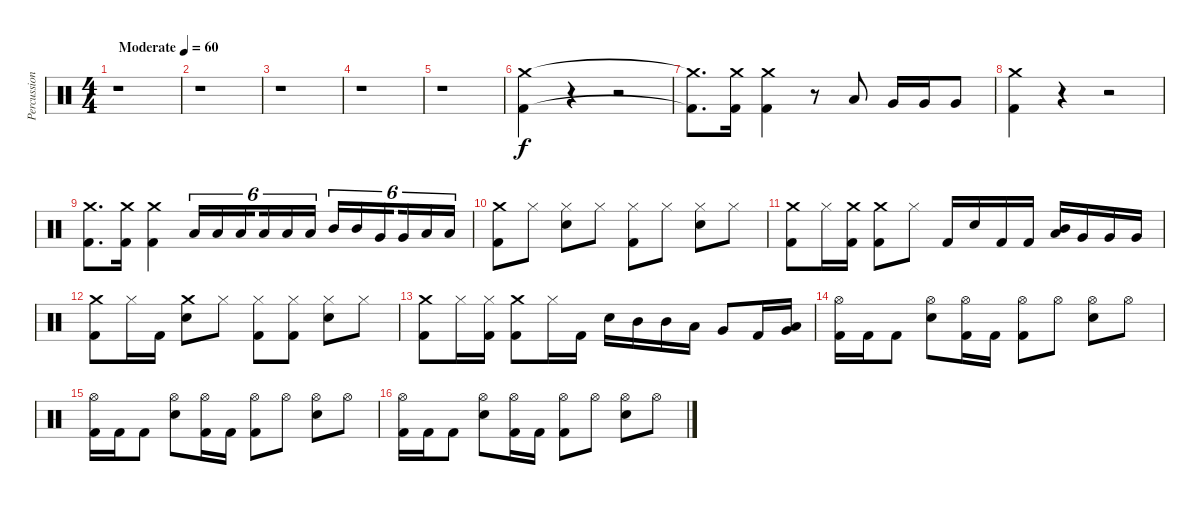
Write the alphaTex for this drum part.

\track ("Percussion" "Percussion") {instrument percussion}
\staff {score}
\articulation defaults
\ts (4 4)
\tempo (60 "Moderate")
\clef neutral
\ks c
r.1{dy f} |
r.1 |
r.1 |
r.1 |
r.1 |
("Crash medium (hit)" "Kick (hit) 2").4 r.4 r.2 |
("Crash medium (hit)"{t} "Kick (hit) 2"{t}).8{d} ("Crash medium (hit)" "Kick (hit) 2").16 ("Crash medium (hit)" "Kick (hit) 2").4 r.8 "Low Tom (hit)".8 "Very Low Tom (hit)".16 "Very Low Tom (hit)".16 "Very Low Tom (hit)".8 |
("Crash medium (hit)" "Kick (hit) 2").4 r.4 r.2 |
("Crash medium (hit)" "Kick (hit) 2").8{d} ("Crash medium (hit)" "Kick (hit) 2").16 ("Crash medium (hit)" "Kick (hit) 2").4 "Low Tom (hit)".16{tu (6 4)} "Low Tom (hit)".16{tu (6 4)} "Low Tom (hit)".16{tu (6 4) beam splitsecondary} "Low Tom (hit)".16{tu (6 4)} "Low Tom (hit)".16{tu (6 4)} "Low Tom (hit)".16{tu (6 4)} "Mid Tom (hit)".16{tu (6 4)} "Mid Tom (hit)".16{tu (6 4)} "Very Low Tom (hit)".16{tu (6 4) beam splitsecondary} "Very Low Tom (hit)".16{tu (6 4)} "Low Floor Tom (hit)".16{tu (6 4)} "Low Floor Tom (hit)".16{tu (6 4)} |
("Crash medium (hit)" "Kick (hit) 2").8 "Hi-Hat (closed)".8 ("Hi-Hat (closed)" "Snare (hit) 2").8 "Hi-Hat (closed)".8 ("Hi-Hat (closed)" "Kick (hit) 2").8 "Hi-Hat (closed)".8 ("Hi-Hat (closed)" "Snare (hit) 2").8 "Hi-Hat (closed)".8 |
("Crash medium (hit)" "Kick (hit) 2").8 "Hi-Hat (closed)".16 ("Crash medium (hit)" "Kick (hit) 2").16 ("Crash medium (hit)" "Kick (hit) 2").8 "Hi-Hat (closed)".8 "Kick (hit) 2".16 "Snare (hit) 2".16 "Kick (hit) 2".16 "Kick (hit) 2".16 ("Mid Tom (hit)" "Low Tom (hit)").16 "Very Low Tom (hit)".16 "Very Low Tom (hit)".16 "Very Low Tom (hit)".16 |
("Crash medium (hit)" "Kick (hit) 2").8 "Hi-Hat (closed)".16 "Kick (hit) 2".16 ("Crash medium (hit)" "Snare (hit) 2").8 "Hi-Hat (closed)".8 ("Hi-Hat (closed)" "Kick (hit) 2").8 ("Hi-Hat (closed)" "Kick (hit) 2").8 ("Hi-Hat (closed)" "Snare (hit) 2").8 "Hi-Hat (closed)".8 |
("Crash medium (hit)" "Kick (hit) 2").8 "Hi-Hat (closed)".16 ("Hi-Hat (closed)" "Kick (hit) 2").16 ("Crash medium (hit)" "Kick (hit) 2").8 "Hi-Hat (closed)".16 "Kick (hit) 2".16 "Snare (hit) 2".16 "Mid Tom (hit)".16 "Mid Tom (hit)".16 "Low Tom (hit)".16 "Very Low Tom (hit)".8 "Kick (hit) 2".16 ("Low Tom (hit)" "Very Low Tom (hit)").16 |
("Hi-Hat (open)" "Kick (hit) 2").16 "Kick (hit) 2".16 "Kick (hit) 2".8 ("Hi-Hat (open)" "Snare (hit) 2").8 ("Hi-Hat (open)" "Kick (hit) 2").16 "Kick (hit) 2".16 ("Hi-Hat (open)" "Kick (hit) 2").8 "Hi-Hat (open)".8 ("Hi-Hat (open)" "Snare (hit) 2").8 "Hi-Hat (open)".8 |
("Hi-Hat (open)" "Kick (hit) 2").16 "Kick (hit) 2".16 "Kick (hit) 2".8 ("Hi-Hat (open)" "Snare (hit) 2").8 ("Hi-Hat (open)" "Kick (hit) 2").16 "Kick (hit) 2".16 ("Hi-Hat (open)" "Kick (hit) 2").8 "Hi-Hat (open)".8 ("Hi-Hat (open)" "Snare (hit) 2").8 "Hi-Hat (open)".8 |
("Hi-Hat (open)" "Kick (hit) 2").16 "Kick (hit) 2".16 "Kick (hit) 2".8 ("Hi-Hat (open)" "Snare (hit) 2").8 ("Hi-Hat (open)" "Kick (hit) 2").16 "Kick (hit) 2".16 ("Hi-Hat (open)" "Kick (hit) 2").8 "Hi-Hat (open)".8 ("Hi-Hat (open)" "Snare (hit) 2").8 "Hi-Hat (open)".8
